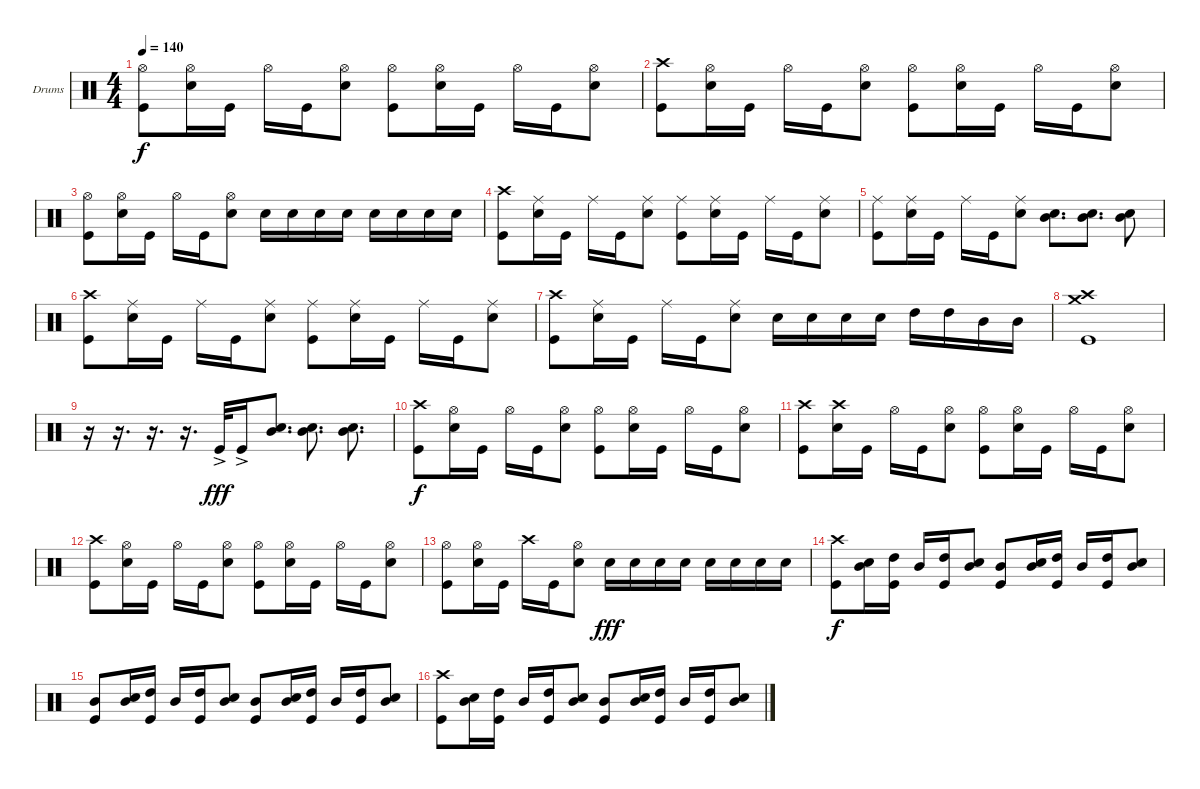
\bracketExtendMode groupsimilarinstruments
\firstSystemTrackNameOrientation horizontal
\otherSystemsTrackNameOrientation horizontal
\track ("Porutchik" "Drums") {instrument percussion}
\staff {score}
\articulation defaults
\ts (4 4)
\tempo 140
\clef neutral
\ks c
("Kick (hit)" "Hi-Hat (open)").8{dy f} ("Snare (hit) 2" "Hi-Hat (open)").16 "Kick (hit)".16 "Hi-Hat (open)".16 "Kick (hit)".16 ("Snare (hit) 2" "Hi-Hat (open)").8 ("Kick (hit)" "Hi-Hat (open)").8 ("Snare (hit) 2" "Hi-Hat (open)").16 "Kick (hit)".16 "Hi-Hat (open)".16 "Kick (hit)".16 ("Snare (hit) 2" "Hi-Hat (open)").8 |
("Kick (hit)" "Crash high (hit)").8 ("Snare (hit) 2" "Hi-Hat (open)").16 "Kick (hit)".16 "Hi-Hat (open)".16 "Kick (hit)".16 ("Snare (hit) 2" "Hi-Hat (open)").8 ("Kick (hit)" "Hi-Hat (open)").8 ("Snare (hit) 2" "Hi-Hat (open)").16 "Kick (hit)".16 "Hi-Hat (open)".16 "Kick (hit)".16 ("Snare (hit) 2" "Hi-Hat (open)").8 |
("Kick (hit)" "Hi-Hat (open)").8 ("Snare (hit) 2" "Hi-Hat (open)").16 "Kick (hit)".16 "Hi-Hat (open)".16 "Kick (hit)".16 ("Snare (hit) 2" "Hi-Hat (open)").8 "Snare (hit) 2".16 "Snare (hit) 2".16 "Snare (hit) 2".16 "Snare (hit) 2".16 "Snare (hit) 2".16 "Snare (hit) 2".16 "Snare (hit) 2".16 "Snare (hit) 2".16 |
("Kick (hit)" "Crash high (hit)").8 ("Snare (hit) 2" "Ride (middle)").16 "Kick (hit)".16 "Ride (middle)".16 "Kick (hit)".16 ("Snare (hit) 2" "Ride (middle)").8 ("Kick (hit)" "Ride (middle)").8 ("Snare (hit) 2" "Ride (middle)").16 "Kick (hit)".16 "Ride (middle)".16 "Kick (hit)".16 ("Snare (hit) 2" "Ride (middle)").8 |
("Kick (hit)" "Ride (middle)").8 ("Snare (hit) 2" "Ride (middle)").16 "Kick (hit)".16 "Ride (middle)".16 "Kick (hit)".16 ("Snare (hit) 2" "Ride (middle)").8 ("Mid Tom (hit)" "Snare (hit) 2").8{d} ("Mid Tom (hit)" "Snare (hit) 2").8{d} ("Mid Tom (hit)" "Snare (hit) 2").8 |
("Kick (hit)" "Crash high (hit)").8 ("Snare (hit) 2" "Ride (middle)").16 "Kick (hit)".16 "Ride (middle)".16 "Kick (hit)".16 ("Snare (hit) 2" "Ride (middle)").8 ("Kick (hit)" "Ride (middle)").8 ("Snare (hit) 2" "Ride (middle)").16 "Kick (hit)".16 "Ride (middle)".16 "Kick (hit)".16 ("Snare (hit) 2" "Ride (middle)").8 |
("Kick (hit)" "Crash high (hit)").8 ("Snare (hit) 2" "Ride (middle)").16 "Kick (hit)".16 "Ride (middle)".16 "Kick (hit)".16 ("Snare (hit) 2" "Ride (middle)").8 "Snare (hit) 2".16 "Snare (hit) 2".16 "Snare (hit) 2".16 "Snare (hit) 2".16 "High Tom (hit)".16 "High Tom (hit)".16 "Mid Tom (hit)".16 "Mid Tom (hit)".16 |
("Kick (hit)" "Crash medium (hit)" "Crash high (hit)").1 |
r.16 r.16{d} r.16{d} r.16{d} "Kick (hit)"{ac}.32{dy fff} "Kick (hit)"{ac}.16 ("Snare (hit) 2" "Mid Tom (hit)").8{d} ("Snare (hit) 2" "Mid Tom (hit)").8{d} ("Snare (hit) 2" "Mid Tom (hit)").8{d} |
("Kick (hit)" "Crash high (hit)").8{dy f} ("Snare (hit) 2" "Hi-Hat (open)").16 "Kick (hit)".16 "Hi-Hat (open)".16 "Kick (hit)".16 ("Snare (hit) 2" "Hi-Hat (open)").8 ("Kick (hit)" "Hi-Hat (open)").8 ("Snare (hit) 2" "Hi-Hat (open)").16 "Kick (hit)".16 "Hi-Hat (open)".16 "Kick (hit)".16 ("Snare (hit) 2" "Hi-Hat (open)").8 |
("Kick (hit)" "Crash high (hit)").8 ("Snare (hit) 2" "Crash high (hit)").16 "Kick (hit)".16 "Hi-Hat (open)".16 "Kick (hit)".16 ("Snare (hit) 2" "Hi-Hat (open)").8 ("Kick (hit)" "Hi-Hat (open)").8 ("Snare (hit) 2" "Hi-Hat (open)").16 "Kick (hit)".16 "Hi-Hat (open)".16 "Kick (hit)".16 ("Snare (hit) 2" "Hi-Hat (open)").8 |
("Kick (hit)" "Crash high (hit)").8 ("Snare (hit) 2" "Hi-Hat (open)").16 "Kick (hit)".16 "Hi-Hat (open)".16 "Kick (hit)".16 ("Snare (hit) 2" "Hi-Hat (open)").8 ("Kick (hit)" "Hi-Hat (open)").8 ("Snare (hit) 2" "Hi-Hat (open)").16 "Kick (hit)".16 "Hi-Hat (open)".16 "Kick (hit)".16 ("Snare (hit) 2" "Hi-Hat (open)").8 |
("Kick (hit)" "Hi-Hat (open)").8 ("Snare (hit) 2" "Hi-Hat (open)").16 "Kick (hit)".16 "Crash high (hit)".16 "Kick (hit)".16 ("Snare (hit) 2" "Hi-Hat (open)").8 "Snare (hit) 2".16{dy fff} "Snare (hit) 2".16 "Snare (hit) 2".16 "Snare (hit) 2".16 "Snare (hit) 2".16 "Snare (hit) 2".16 "Snare (hit) 2".16 "Snare (hit) 2".16 |
("Crash high (hit)" "Kick (hit)").8{dy f} ("Mid Tom (hit)" "Snare (hit) 2").16 ("High Tom (hit)" "Kick (hit)").16 "Mid Tom (hit)".16 ("High Tom (hit)" "Kick (hit)").16 ("Mid Tom (hit)" "Snare (hit) 2").8 ("Mid Tom (hit)" "Kick (hit)").8 ("Mid Tom (hit)" "Snare (hit) 2").16 ("High Tom (hit)" "Kick (hit)").16 "Mid Tom (hit)".16 ("High Tom (hit)" "Kick (hit)").16 ("Mid Tom (hit)" "Snare (hit) 2").8 |
("Mid Tom (hit)" "Kick (hit)").8 ("Mid Tom (hit)" "Snare (hit) 2").16 ("High Tom (hit)" "Kick (hit)").16 "Mid Tom (hit)".16 ("High Tom (hit)" "Kick (hit)").16 ("Mid Tom (hit)" "Snare (hit) 2").8 ("Mid Tom (hit)" "Kick (hit)").8 ("Mid Tom (hit)" "Snare (hit) 2").16 ("High Tom (hit)" "Kick (hit)").16 "Mid Tom (hit)".16 ("High Tom (hit)" "Kick (hit)").16 ("Mid Tom (hit)" "Snare (hit) 2").8 |
("Crash high (hit)" "Kick (hit)").8 ("Mid Tom (hit)" "Snare (hit) 2").16 ("High Tom (hit)" "Kick (hit)").16 "Mid Tom (hit)".16 ("High Tom (hit)" "Kick (hit)").16 ("Mid Tom (hit)" "Snare (hit) 2").8 ("Mid Tom (hit)" "Kick (hit)").8 ("Mid Tom (hit)" "Snare (hit) 2").16 ("High Tom (hit)" "Kick (hit)").16 "Mid Tom (hit)".16 ("High Tom (hit)" "Kick (hit)").16 ("Mid Tom (hit)" "Snare (hit) 2").8
